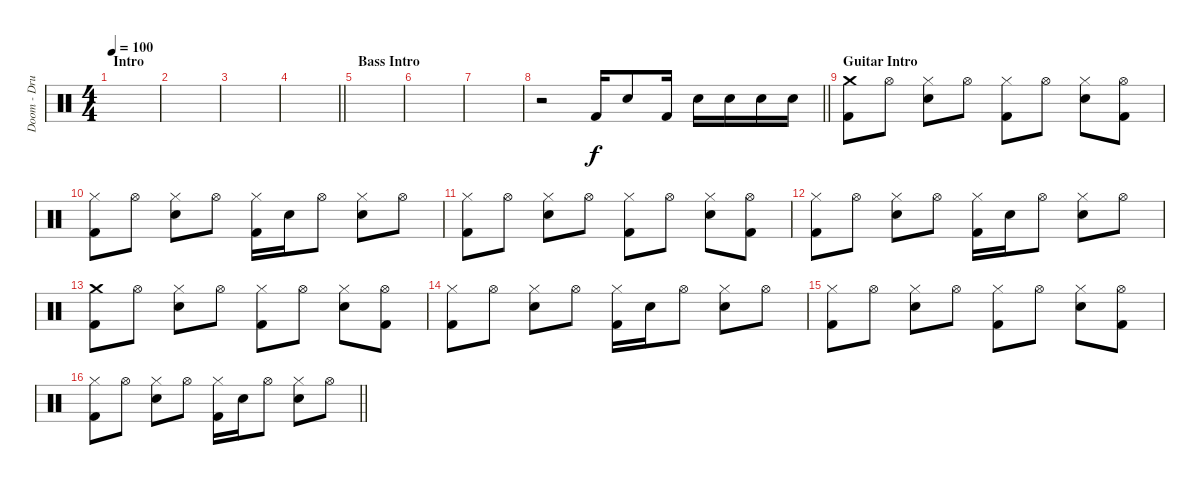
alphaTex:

\track ("Doom - Drums" "Doom - Dru") {instrument percussion}
\staff {score}
\articulation defaults
\ts (4 4)
\section ("" "Intro")
\tempo 100
\clef neutral
\ks c
|
|
|
\barLineRight lightlight
|
\section ("" "Bass Intro")
|
|
|
\barLineRight lightlight
r.2 "Kick (hit) 2".16 "Snare (hit) 2".8 "Kick (hit) 2".16 "Snare (hit) 2".16 "Snare (hit) 2".16 "Snare (hit) 2".16 "Snare (hit) 2".16 |
\section ("" "Guitar Intro")
("Crash medium (hit)" "Kick (hit) 2").8 "Hi-Hat (open)".8 ("Hi-Hat (closed)" "Snare (hit) 2").8 "Hi-Hat (open)".8 ("Hi-Hat (closed)" "Kick (hit) 2").8 "Hi-Hat (open)".8 ("Hi-Hat (closed)" "Snare (hit) 2").8 ("Hi-Hat (open)" "Kick (hit) 2").8 |
("Hi-Hat (closed)" "Kick (hit) 2").8 "Hi-Hat (open)".8 ("Hi-Hat (closed)" "Snare (hit) 2").8 "Hi-Hat (open)".8 ("Hi-Hat (closed)" "Kick (hit) 2").16 "Snare (hit) 2".16 "Hi-Hat (open)".8 ("Hi-Hat (closed)" "Snare (hit) 2").8 "Hi-Hat (open)".8 |
("Hi-Hat (closed)" "Kick (hit) 2").8 "Hi-Hat (open)".8 ("Hi-Hat (closed)" "Snare (hit) 2").8 "Hi-Hat (open)".8 ("Hi-Hat (closed)" "Kick (hit) 2").8 "Hi-Hat (open)".8 ("Hi-Hat (closed)" "Snare (hit) 2").8 ("Hi-Hat (open)" "Kick (hit) 2").8 |
("Hi-Hat (closed)" "Kick (hit) 2").8 "Hi-Hat (open)".8 ("Hi-Hat (closed)" "Snare (hit) 2").8 "Hi-Hat (open)".8 ("Hi-Hat (closed)" "Kick (hit) 2").16 "Snare (hit) 2".16 "Hi-Hat (open)".8 ("Hi-Hat (closed)" "Snare (hit) 2").8 "Hi-Hat (open)".8 |
("Crash medium (hit)" "Kick (hit) 2").8 "Hi-Hat (open)".8 ("Hi-Hat (closed)" "Snare (hit) 2").8 "Hi-Hat (open)".8 ("Hi-Hat (closed)" "Kick (hit) 2").8 "Hi-Hat (open)".8 ("Hi-Hat (closed)" "Snare (hit) 2").8 ("Hi-Hat (open)" "Kick (hit) 2").8 |
("Hi-Hat (closed)" "Kick (hit) 2").8 "Hi-Hat (open)".8 ("Hi-Hat (closed)" "Snare (hit) 2").8 "Hi-Hat (open)".8 ("Hi-Hat (closed)" "Kick (hit) 2").16 "Snare (hit) 2".16 "Hi-Hat (open)".8 ("Hi-Hat (closed)" "Snare (hit) 2").8 "Hi-Hat (open)".8 |
("Hi-Hat (closed)" "Kick (hit) 2").8 "Hi-Hat (open)".8 ("Hi-Hat (closed)" "Snare (hit) 2").8 "Hi-Hat (open)".8 ("Hi-Hat (closed)" "Kick (hit) 2").8 "Hi-Hat (open)".8 ("Hi-Hat (closed)" "Snare (hit) 2").8 ("Hi-Hat (open)" "Kick (hit) 2").8 |
\barLineRight lightlight
("Hi-Hat (closed)" "Kick (hit) 2").8 "Hi-Hat (open)".8 ("Hi-Hat (closed)" "Snare (hit) 2").8 "Hi-Hat (open)".8 ("Hi-Hat (closed)" "Kick (hit) 2").16 "Snare (hit) 2".16 "Hi-Hat (open)".8 ("Hi-Hat (closed)" "Snare (hit) 2").8 "Hi-Hat (open)".8
